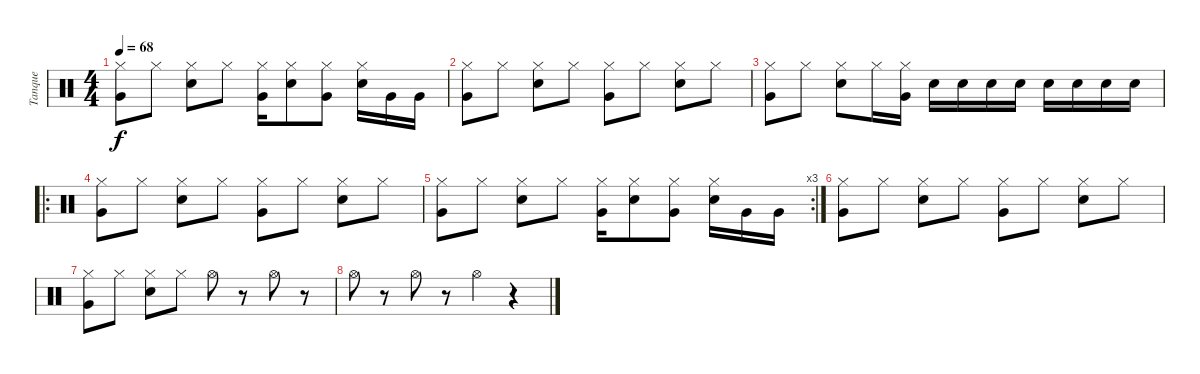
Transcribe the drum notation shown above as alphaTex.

\track ("Tanque" "Tanque") {instrument percussion}
\staff {score}
\articulation defaults
\ts (4 4)
\tempo 68
\clef neutral
\ks c
("Hi-Hat (closed)" "Very Low Tom (hit)").8{dy f} "Hi-Hat (closed)".8 ("Hi-Hat (closed)" "Snare (hit) 2").8 "Hi-Hat (closed)".8 ("Hi-Hat (closed)" "Very Low Tom (hit)").16 ("Hi-Hat (closed)" "Snare (hit) 2").8 ("Hi-Hat (closed)" "Very Low Tom (hit)").8 ("Hi-Hat (closed)" "Snare (hit) 2").16 "Very Low Tom (hit)".16 "Very Low Tom (hit)".16 |
("Hi-Hat (closed)" "Very Low Tom (hit)").8 "Hi-Hat (closed)".8 ("Hi-Hat (closed)" "Snare (hit) 2").8 "Hi-Hat (closed)".8 ("Hi-Hat (closed)" "Very Low Tom (hit)").8 "Hi-Hat (closed)".8 ("Hi-Hat (closed)" "Snare (hit) 2").8 "Hi-Hat (closed)".8 |
("Hi-Hat (closed)" "Very Low Tom (hit)").8 "Hi-Hat (closed)".8 ("Hi-Hat (closed)" "Snare (hit) 2").8 "Hi-Hat (closed)".16 ("Hi-Hat (closed)" "Very Low Tom (hit)").16 "Snare (hit) 2".16 "Snare (hit) 2".16 "Snare (hit) 2".16 "Snare (hit) 2".16 "Snare (hit) 2".16 "Snare (hit) 2".16 "Snare (hit) 2".16 "Snare (hit) 2".16 |
\ro
("Hi-Hat (closed)" "Very Low Tom (hit)").8 "Hi-Hat (closed)".8 ("Hi-Hat (closed)" "Snare (hit) 2").8 "Hi-Hat (closed)".8 ("Hi-Hat (closed)" "Very Low Tom (hit)").8 "Hi-Hat (closed)".8 ("Hi-Hat (closed)" "Snare (hit) 2").8 "Hi-Hat (closed)".8 |
\rc 3
("Hi-Hat (closed)" "Very Low Tom (hit)").8 "Hi-Hat (closed)".8 ("Hi-Hat (closed)" "Snare (hit) 2").8 "Hi-Hat (closed)".8 ("Hi-Hat (closed)" "Very Low Tom (hit)").16 ("Hi-Hat (closed)" "Snare (hit) 2").8 ("Hi-Hat (closed)" "Very Low Tom (hit)").8 ("Hi-Hat (closed)" "Snare (hit) 2").16 "Very Low Tom (hit)".16 "Very Low Tom (hit)".16 |
("Hi-Hat (closed)" "Very Low Tom (hit)").8 "Hi-Hat (closed)".8 ("Hi-Hat (closed)" "Snare (hit) 2").8 "Hi-Hat (closed)".8 ("Hi-Hat (closed)" "Very Low Tom (hit)").8 "Hi-Hat (closed)".8 ("Hi-Hat (closed)" "Snare (hit) 2").8 "Hi-Hat (closed)".8 |
("Hi-Hat (closed)" "Very Low Tom (hit)").8 "Hi-Hat (closed)".8 ("Hi-Hat (closed)" "Snare (hit) 2").8 "Hi-Hat (closed)".8 "Hi-Hat (open)".8 r.8 "Hi-Hat (open)".8 r.8 |
"Hi-Hat (open)".8 r.8 "Hi-Hat (open)".8 r.8 "Hi-Hat (open)".4 r.4
